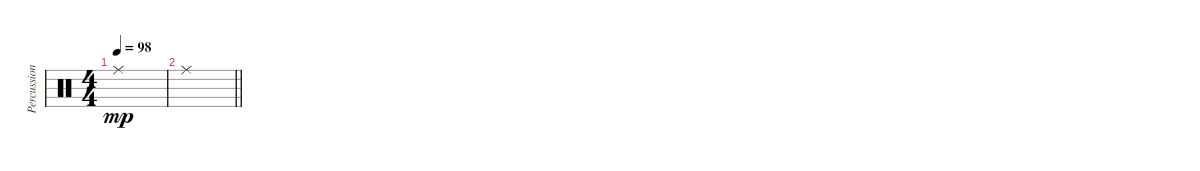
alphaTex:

\track ("Percussion" "Percussion") {instrument percussion}
\staff {score}
\articulation defaults
\ts (4 4)
\tempo 98
\clef neutral
\ks c "Ride (middle)".1{dy mp}
|
\barLineRight lightlight "Ride (middle)".1
